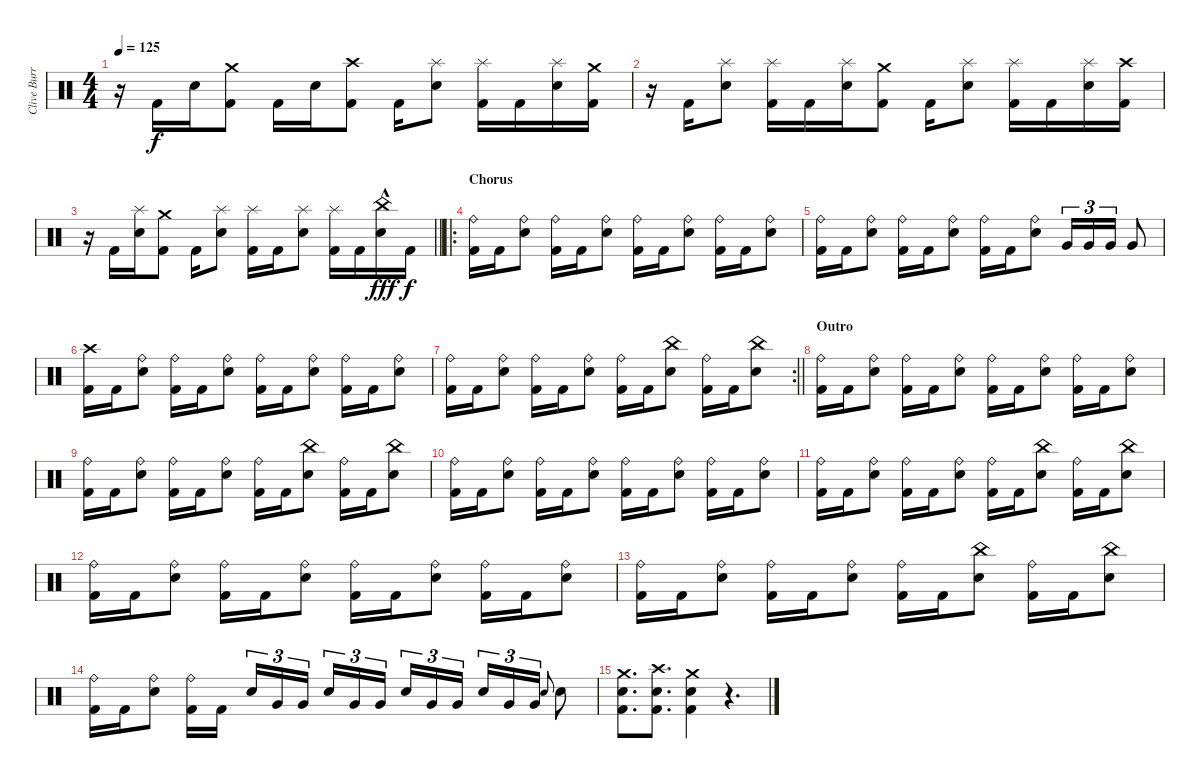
\track ("Clive Burr" "Clive Burr") {instrument percussion}
\staff {score}
\articulation defaults
\ts (4 4)
\tempo 125
\clef neutral
\ks c
r.16{dy f} "Kick (hit) 2".16 "Snare (hit) 2".16 ("Crash medium (hit)" "Kick (hit) 2").8 "Kick (hit) 2".16 "Snare (hit) 2".16 ("Crash high (hit)" "Kick (hit) 2").8 "Kick (hit) 2".16 ("Splash (hit)" "Snare (hit) 2").8 ("Splash (hit)" "Kick (hit) 2").16 "Kick (hit) 2".16 ("Splash (hit)" "Snare (hit) 2").16 ("Crash medium (hit)" "Kick (hit) 2").16 |
r.16 "Kick (hit) 2".16 ("Splash (hit)" "Snare (hit) 2").8 ("Splash (hit)" "Kick (hit) 2").16 "Kick (hit) 2".16 ("Splash (hit)" "Snare (hit) 2").16 ("Crash medium (hit)" "Kick (hit) 2").8 "Kick (hit) 2".16 ("Splash (hit)" "Snare (hit) 2").8 ("Splash (hit)" "Kick (hit) 2").16 "Kick (hit) 2".16 ("Splash (hit)" "Snare (hit) 2").16 ("Crash high (hit)" "Kick (hit) 2").16 |
\barLineRight lightlight
r.16 "Kick (hit) 2".16 ("Splash (hit)" "Snare (hit) 2").16 ("Crash medium (hit)" "Kick (hit) 2").8 "Kick (hit) 2".16 ("Splash (hit)" "Snare (hit) 2").8 ("Splash (hit)" "Kick (hit) 2").16 "Kick (hit) 2".16 ("Splash (hit)" "Snare (hit) 2").8 ("Splash (hit)" "Kick (hit) 2").16 "Kick (hit) 2".16 ("China (hit)"{hac} "Snare (hit) 2").16{dy fff} "Kick (hit) 2".16{dy f} |
\ro
\section ("" "Chorus")
("Ride (bell)" "Kick (hit) 2").16 "Kick (hit) 2".16 ("Ride (bell)" "Snare (hit) 2").8 ("Ride (bell)" "Kick (hit) 2").16 "Kick (hit) 2".16 ("Ride (bell)" "Snare (hit) 2").8 ("Ride (bell)" "Kick (hit) 2").16 "Kick (hit) 2".16 ("Ride (bell)" "Snare (hit) 2").8 ("Ride (bell)" "Kick (hit) 2").16 "Kick (hit) 2".16 ("Ride (bell)" "Snare (hit) 2").8 |
("Ride (bell)" "Kick (hit) 2").16 "Kick (hit) 2".16 ("Ride (bell)" "Snare (hit) 2").8 ("Ride (bell)" "Kick (hit) 2").16 "Kick (hit) 2".16 ("Ride (bell)" "Snare (hit) 2").8 ("Ride (bell)" "Kick (hit) 2").16 "Kick (hit) 2".16 ("Ride (bell)" "Snare (hit) 2").8 "Very Low Tom (hit)".16{tu (3 2)} "Very Low Tom (hit)".16{tu (3 2)} "Very Low Tom (hit)".16{tu (3 2)} "Very Low Tom (hit)".8 |
("Crash high (hit)" "Kick (hit) 2").16 "Kick (hit) 2".16 ("Ride (bell)" "Snare (hit) 2").8 ("Ride (bell)" "Kick (hit) 2").16 "Kick (hit) 2".16 ("Ride (bell)" "Snare (hit) 2").8 ("Ride (bell)" "Kick (hit) 2").16 "Kick (hit) 2".16 ("Ride (bell)" "Snare (hit) 2").8 ("Ride (bell)" "Kick (hit) 2").16 "Kick (hit) 2".16 ("Ride (bell)" "Snare (hit) 2").8 |
\rc 2
\barLineRight lightlight
("Ride (bell)" "Kick (hit) 2").16 "Kick (hit) 2".16 ("Ride (bell)" "Snare (hit) 2").8 ("Ride (bell)" "Kick (hit) 2").16 "Kick (hit) 2".16 ("Ride (bell)" "Snare (hit) 2").8 ("Ride (bell)" "Kick (hit) 2").16 "Kick (hit) 2".16 ("China (hit)" "Snare (hit) 2").8 ("Ride (bell)" "Kick (hit) 2").16 "Kick (hit) 2".16 ("China (hit)" "Snare (hit) 2").8 |
\section ("" "Outro")
("Ride (bell)" "Kick (hit) 2").16 "Kick (hit) 2".16 ("Ride (bell)" "Snare (hit) 2").8 ("Ride (bell)" "Kick (hit) 2").16 "Kick (hit) 2".16 ("Ride (bell)" "Snare (hit) 2").8 ("Ride (bell)" "Kick (hit) 2").16 "Kick (hit) 2".16 ("Ride (bell)" "Snare (hit) 2").8 ("Ride (bell)" "Kick (hit) 2").16 "Kick (hit) 2".16 ("Ride (bell)" "Snare (hit) 2").8 |
("Ride (bell)" "Kick (hit) 2").16 "Kick (hit) 2".16 ("Ride (bell)" "Snare (hit) 2").8 ("Ride (bell)" "Kick (hit) 2").16 "Kick (hit) 2".16 ("Ride (bell)" "Snare (hit) 2").8 ("Ride (bell)" "Kick (hit) 2").16 "Kick (hit) 2".16 ("China (hit)" "Snare (hit) 2").8 ("Ride (bell)" "Kick (hit) 2").16 "Kick (hit) 2".16 ("China (hit)" "Snare (hit) 2").8 |
("Ride (bell)" "Kick (hit) 2").16 "Kick (hit) 2".16 ("Ride (bell)" "Snare (hit) 2").8 ("Ride (bell)" "Kick (hit) 2").16 "Kick (hit) 2".16 ("Ride (bell)" "Snare (hit) 2").8 ("Ride (bell)" "Kick (hit) 2").16 "Kick (hit) 2".16 ("Ride (bell)" "Snare (hit) 2").8 ("Ride (bell)" "Kick (hit) 2").16 "Kick (hit) 2".16 ("Ride (bell)" "Snare (hit) 2").8 |
("Ride (bell)" "Kick (hit) 2").16 "Kick (hit) 2".16 ("Ride (bell)" "Snare (hit) 2").8 ("Ride (bell)" "Kick (hit) 2").16 "Kick (hit) 2".16 ("Ride (bell)" "Snare (hit) 2").8 ("Ride (bell)" "Kick (hit) 2").16 "Kick (hit) 2".16 ("China (hit)" "Snare (hit) 2").8 ("Ride (bell)" "Kick (hit) 2").16 "Kick (hit) 2".16 ("China (hit)" "Snare (hit) 2").8 |
("Ride (bell)" "Kick (hit) 2").16 "Kick (hit) 2".16 ("Ride (bell)" "Snare (hit) 2").8 ("Ride (bell)" "Kick (hit) 2").16 "Kick (hit) 2".16 ("Ride (bell)" "Snare (hit) 2").8 ("Ride (bell)" "Kick (hit) 2").16 "Kick (hit) 2".16 ("Ride (bell)" "Snare (hit) 2").8 ("Ride (bell)" "Kick (hit) 2").16 "Kick (hit) 2".16 ("Ride (bell)" "Snare (hit) 2").8 |
("Ride (bell)" "Kick (hit) 2").16 "Kick (hit) 2".16 ("Ride (bell)" "Snare (hit) 2").8 ("Ride (bell)" "Kick (hit) 2").16 "Kick (hit) 2".16 ("Ride (bell)" "Snare (hit) 2").8 ("Ride (bell)" "Kick (hit) 2").16 "Kick (hit) 2".16 ("China (hit)" "Snare (hit) 2").8 ("Ride (bell)" "Kick (hit) 2").16 "Kick (hit) 2".16 ("China (hit)" "Snare (hit) 2").8 |
("Ride (bell)" "Kick (hit) 2").16 "Kick (hit) 2".16 ("Ride (bell)" "Snare (hit) 2").8 ("Ride (bell)" "Kick (hit) 2").16 "Kick (hit) 2".16{beam splitsecondary} "Electric Snare (hit)".16{tu (3 2)} "Very Low Tom (hit)".16{tu (3 2)} "Very Low Tom (hit)".16{tu (3 2)} "Electric Snare (hit)".16{tu (3 2)} "Very Low Tom (hit)".16{tu (3 2)} "Very Low Tom (hit)".16{tu (3 2) beam splitsecondary} "Electric Snare (hit)".16{tu (3 2)} "Very Low Tom (hit)".16{tu (3 2)} "Very Low Tom (hit)".16{tu (3 2)} "Electric Snare (hit)".16{tu (3 2)} "Very Low Tom (hit)".16{tu (3 2)} "Very Low Tom (hit)".16{tu (3 2)} "Electric Snare (hit)".8{gr onbeat} "Electric Snare (hit)".8 |
("Crash medium (hit)" "Snare (hit) 2" "Kick (hit) 2").8{d} ("Crash high (hit)" "Snare (hit) 2" "Kick (hit) 2").8{d} ("Crash medium (hit)" "Snare (hit) 2" "Kick (hit) 2").4 r.4{d}
